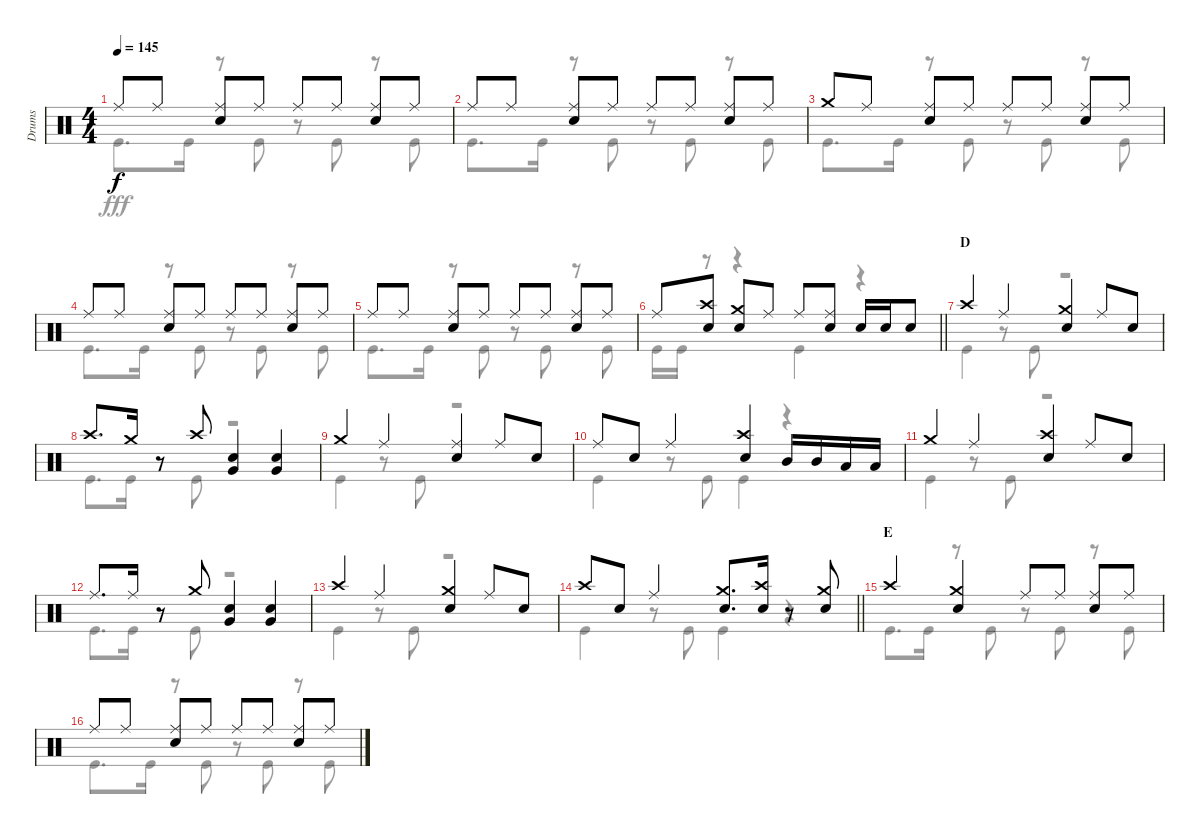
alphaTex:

\track ("Drums" "Drums") {instrument percussion}
\staff {score}
\articulation defaults
\voice
\ts (4 4)
\tempo 145
\clef neutral
\ks c "Ride (middle)".8{dy f} "Ride (middle)".8
("Ride (middle)" "Snare (hit) 2").8 "Ride (middle)".8 "Ride (middle)".8 "Ride (middle)".8 ("Ride (middle)" "Snare (hit) 2").8 "Ride (middle)".8 |
"Ride (middle)".8 "Ride (middle)".8 ("Ride (middle)" "Snare (hit) 2").8 "Ride (middle)".8 "Ride (middle)".8 "Ride (middle)".8 ("Ride (middle)" "Snare (hit) 2").8 "Ride (middle)".8 |
"Crash medium (hit)".8 "Ride (middle)".8 ("Ride (middle)" "Snare (hit) 2").8 "Ride (middle)".8 "Ride (middle)".8 "Ride (middle)".8 ("Ride (middle)" "Snare (hit) 2").8 "Ride (middle)".8 |
"Ride (middle)".8 "Ride (middle)".8 ("Ride (middle)" "Snare (hit) 2").8 "Ride (middle)".8 "Ride (middle)".8 "Ride (middle)".8 ("Ride (middle)" "Snare (hit) 2").8 "Ride (middle)".8 |
"Ride (middle)".8 "Ride (middle)".8 ("Ride (middle)" "Snare (hit) 2").8 "Ride (middle)".8 "Ride (middle)".8 "Ride (middle)".8 ("Ride (middle)" "Snare (hit) 2").8 "Ride (middle)".8 |
\barLineRight lightlight "Ride (middle)".8
("Crash high (hit)" "Snare (hit) 2").8 ("Crash medium (hit)" "Snare (hit) 2").8 "Ride (middle)".8 "Ride (middle)".8 ("Ride (middle)" "Snare (hit) 2").8 "Snare (hit) 2".16 "Snare (hit) 2".16 "Snare (hit) 2".8 |
\section ("" "D")
"Crash high (hit)".4 "Ride (middle)".4 ("Crash medium (hit)" "Snare (hit) 2").4 "Ride (middle)".8 "Snare (hit) 2".8 |
"Crash high (hit)".8{d} "Crash medium (hit)".16 r.8 "Crash high (hit)".8 ("Snare (hit) 2" "Very Low Tom (hit)").4 ("Snare (hit) 2" "Very Low Tom (hit)").4 |
"Crash medium (hit)".4 "Ride (middle)".4 ("Ride (middle)" "Snare (hit) 2").4 "Ride (middle)".8 "Snare (hit) 2".8 |
"Ride (middle)".8 "Snare (hit) 2".8 "Ride (middle)".4 ("Crash high (hit)" "Snare (hit) 2").4 "Mid Tom (hit)".16 "Mid Tom (hit)".16 "Low Tom (hit)".16 "Low Tom (hit)".16 |
"Crash medium (hit)".4 "Ride (middle)".4 ("Crash high (hit)" "Snare (hit) 2").4 "Ride (middle)".8 "Snare (hit) 2".8 |
"Ride (middle)".8{d} "Ride (middle)".16 r.8 "Crash medium (hit)".8 ("Snare (hit) 2" "Very Low Tom (hit)").4 ("Snare (hit) 2" "Very Low Tom (hit)").4 |
"Crash high (hit)".4 "Ride (middle)".4 ("Crash medium (hit)" "Snare (hit) 2").4 "Ride (middle)".8 "Snare (hit) 2".8 |
\barLineRight lightlight "Crash high (hit)".8 "Snare (hit) 2".8 "Ride (middle)".4
("Crash medium (hit)" "Snare (hit) 2").8{d} ("Crash high (hit)" "Snare (hit) 2").16 r.8 ("Crash medium (hit)" "Snare (hit) 2").8 |
\section ("" "E")
"Crash high (hit)".4 ("Crash medium (hit)" "Snare (hit) 2").4 "Ride (middle)".8 "Ride (middle)".8 ("Ride (middle)" "Snare (hit) 2").8 "Ride (middle)".8 |
"Ride (middle)".8 "Ride (middle)".8 ("Ride (middle)" "Snare (hit) 2").8 "Ride (middle)".8 "Ride (middle)".8 "Ride (middle)".8 ("Ride (middle)" "Snare (hit) 2").8 "Ride (middle)".8
\voice
\clef neutral
\ottava regular
\simile none
\ks c "Kick (hit)".8{d dy fff} "Kick (hit)".16
r.8 "Kick (hit)".8 r.8 "Kick (hit)".8 r.8 "Kick (hit)".8 |
"Kick (hit)".8{d} "Kick (hit)".16 r.8 "Kick (hit)".8 r.8 "Kick (hit)".8 r.8 "Kick (hit)".8 |
"Kick (hit)".8{d} "Kick (hit)".16 r.8 "Kick (hit)".8 r.8 "Kick (hit)".8 r.8 "Kick (hit)".8 |
"Kick (hit)".8{d} "Kick (hit)".16 r.8 "Kick (hit)".8 r.8 "Kick (hit)".8 r.8 "Kick (hit)".8 |
"Kick (hit)".8{d} "Kick (hit)".16 r.8 "Kick (hit)".8 r.8 "Kick (hit)".8 r.8 "Kick (hit)".8 |
\barLineRight lightlight "Kick (hit)".16 "Kick (hit)".16
r.8 r.4 "Kick (hit)".4 r.4 |
"Kick (hit)".4 r.8 "Kick (hit)".8 r.2 |
"Kick (hit)".8{d} "Kick (hit)".16 r.8 "Kick (hit)".8 r.2 |
"Kick (hit)".4 r.8 "Kick (hit)".8 r.2 |
"Kick (hit)".4 r.8 "Kick (hit)".8 "Kick (hit)".4 r.4 |
"Kick (hit)".4 r.8 "Kick (hit)".8 r.2 |
"Kick (hit)".8{d} "Kick (hit)".16 r.8 "Kick (hit)".8 r.2 |
"Kick (hit)".4 r.8 "Kick (hit)".8 r.2 |
\barLineRight lightlight "Kick (hit)".4
r.8 "Kick (hit)".8 "Kick (hit)".4 r.4 |
"Kick (hit)".8{d} "Kick (hit)".16 r.8 "Kick (hit)".8 r.8 "Kick (hit)".8 r.8 "Kick (hit)".8 |
"Kick (hit)".8{d} "Kick (hit)".16 r.8 "Kick (hit)".8 r.8 "Kick (hit)".8 r.8 "Kick (hit)".8
